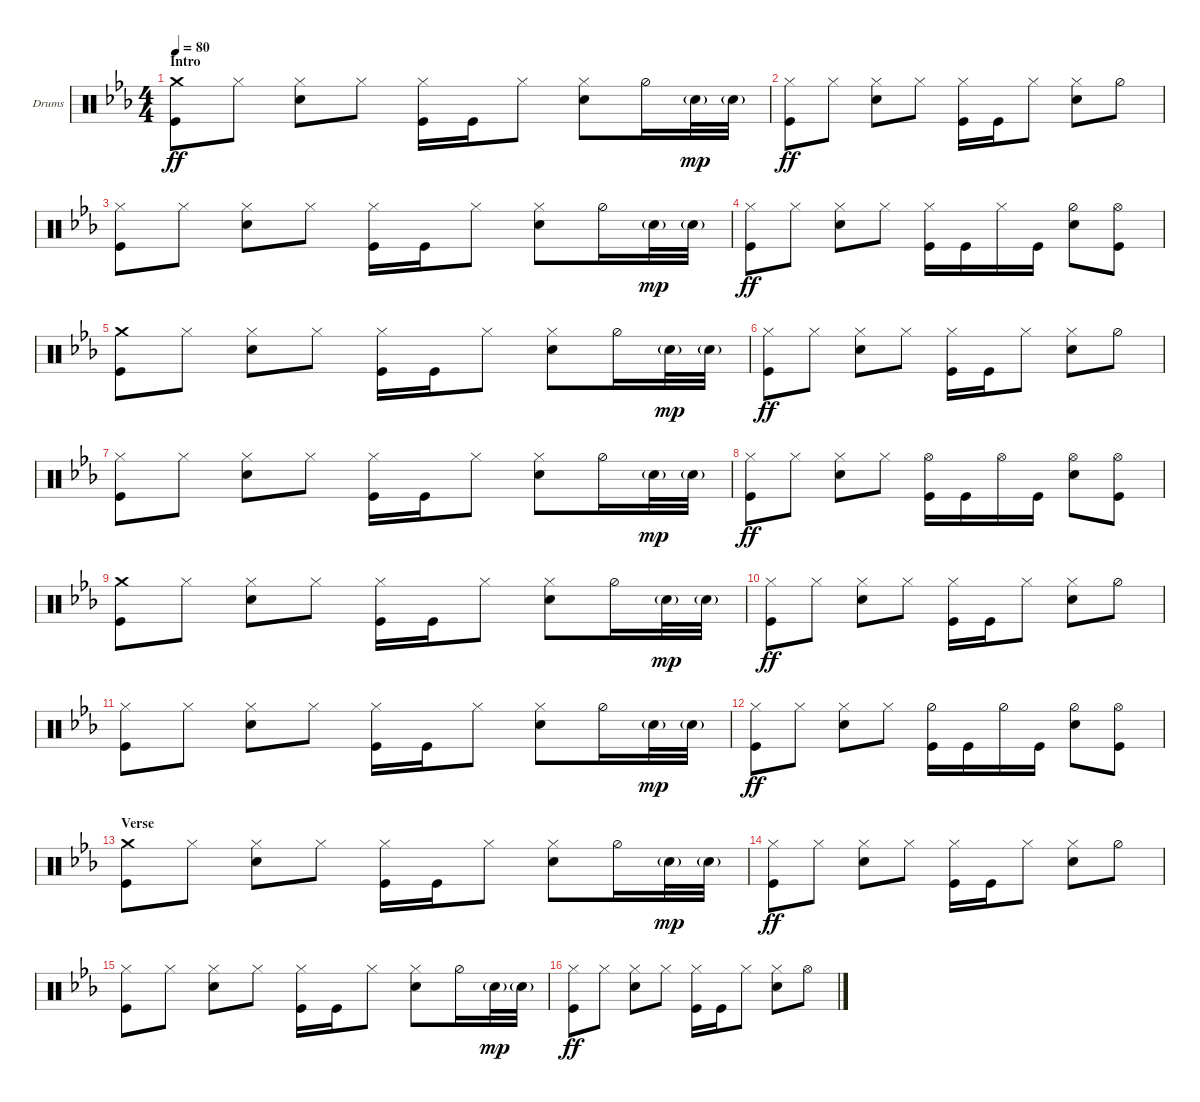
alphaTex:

\defaultSystemsLayout 4
\bracketExtendMode groupsimilarinstruments
\firstSystemTrackNameOrientation horizontal
\otherSystemsTrackNameOrientation horizontal
\track ("Mario Goossens" "Drums") {instrument percussion}
\staff {score}
\articulation defaults
\ts (4 4)
\section ("" "Intro")
\tempo 80
\clef neutral
\ks cminor
("Kick (hit)" "Crash medium (hit)").8{dy ff} "Hi-Hat (closed)".8 ("Hi-Hat (closed)" "Snare (hit) 2").8 "Hi-Hat (closed)".8 ("Kick (hit)" "Hi-Hat (closed)").16 "Kick (hit)".16 "Hi-Hat (closed)".8 ("Hi-Hat (closed)" "Snare (hit) 2").8 "Hi-Hat (half)".16 "Snare (hit) 2"{g}.32{dy mp} "Snare (hit) 2"{g}.32 |
("Kick (hit)" "Hi-Hat (closed)").8{dy ff} "Hi-Hat (closed)".8 ("Hi-Hat (closed)" "Snare (hit) 2").8 "Hi-Hat (closed)".8 ("Kick (hit)" "Hi-Hat (closed)").16 "Kick (hit)".16 "Hi-Hat (closed)".8 ("Hi-Hat (closed)" "Snare (hit) 2").8 "Hi-Hat (half)".8 |
("Kick (hit)" "Hi-Hat (closed)").8 "Hi-Hat (closed)".8 ("Hi-Hat (closed)" "Snare (hit) 2").8 "Hi-Hat (closed)".8 ("Kick (hit)" "Hi-Hat (closed)").16 "Kick (hit)".16 "Hi-Hat (closed)".8 ("Hi-Hat (closed)" "Snare (hit) 2").8 "Hi-Hat (half)".16 "Snare (hit) 2"{g}.32{dy mp} "Snare (hit) 2"{g}.32 |
("Kick (hit)" "Hi-Hat (closed)").8{dy ff} "Hi-Hat (closed)".8 ("Hi-Hat (closed)" "Snare (hit) 2").8 "Hi-Hat (closed)".8 ("Kick (hit)" "Hi-Hat (closed)").16 "Kick (hit)".16 "Hi-Hat (closed)".16 "Kick (hit)".16 ("Hi-Hat (half)" "Snare (hit) 2").8 ("Hi-Hat (open)" "Kick (hit)").8 |
("Kick (hit)" "Crash medium (hit)").8 "Hi-Hat (closed)".8 ("Hi-Hat (closed)" "Snare (hit) 2").8 "Hi-Hat (closed)".8 ("Kick (hit)" "Hi-Hat (closed)").16 "Kick (hit)".16 "Hi-Hat (closed)".8 ("Hi-Hat (closed)" "Snare (hit) 2").8 "Hi-Hat (half)".16 "Snare (hit) 2"{g}.32{dy mp} "Snare (hit) 2"{g}.32 |
("Kick (hit)" "Hi-Hat (closed)").8{dy ff} "Hi-Hat (closed)".8 ("Hi-Hat (closed)" "Snare (hit) 2").8 "Hi-Hat (closed)".8 ("Kick (hit)" "Hi-Hat (closed)").16 "Kick (hit)".16 "Hi-Hat (closed)".8 ("Hi-Hat (closed)" "Snare (hit) 2").8 "Hi-Hat (half)".8 |
("Kick (hit)" "Hi-Hat (closed)").8 "Hi-Hat (closed)".8 ("Hi-Hat (closed)" "Snare (hit) 2").8 "Hi-Hat (closed)".8 ("Kick (hit)" "Hi-Hat (closed)").16 "Kick (hit)".16 "Hi-Hat (closed)".8 ("Hi-Hat (closed)" "Snare (hit) 2").8 "Hi-Hat (half)".16 "Snare (hit) 2"{g}.32{dy mp} "Snare (hit) 2"{g}.32 |
("Kick (hit)" "Hi-Hat (closed)").8{dy ff} "Hi-Hat (closed)".8 ("Hi-Hat (closed)" "Snare (hit) 2").8 "Hi-Hat (closed)".8 ("Kick (hit)" "Hi-Hat (open)").16 "Kick (hit)".16 "Hi-Hat (open)".16 "Kick (hit)".16 ("Hi-Hat (open)" "Snare (hit) 2").8 ("Hi-Hat (open)" "Kick (hit)").8 |
("Kick (hit)" "Crash medium (hit)").8 "Hi-Hat (closed)".8 ("Hi-Hat (closed)" "Snare (hit) 2").8 "Hi-Hat (closed)".8 ("Kick (hit)" "Hi-Hat (closed)").16 "Kick (hit)".16 "Hi-Hat (closed)".8 ("Hi-Hat (closed)" "Snare (hit) 2").8 "Hi-Hat (half)".16 "Snare (hit) 2"{g}.32{dy mp} "Snare (hit) 2"{g}.32 |
("Kick (hit)" "Hi-Hat (closed)").8{dy ff} "Hi-Hat (closed)".8 ("Hi-Hat (closed)" "Snare (hit) 2").8 "Hi-Hat (closed)".8 ("Kick (hit)" "Hi-Hat (closed)").16 "Kick (hit)".16 "Hi-Hat (closed)".8 ("Hi-Hat (closed)" "Snare (hit) 2").8 "Hi-Hat (half)".8 |
("Kick (hit)" "Hi-Hat (closed)").8 "Hi-Hat (closed)".8 ("Hi-Hat (closed)" "Snare (hit) 2").8 "Hi-Hat (closed)".8 ("Kick (hit)" "Hi-Hat (closed)").16 "Kick (hit)".16 "Hi-Hat (closed)".8 ("Hi-Hat (closed)" "Snare (hit) 2").8 "Hi-Hat (half)".16 "Snare (hit) 2"{g}.32{dy mp} "Snare (hit) 2"{g}.32 |
("Kick (hit)" "Hi-Hat (closed)").8{dy ff} "Hi-Hat (closed)".8 ("Hi-Hat (closed)" "Snare (hit) 2").8 "Hi-Hat (closed)".8 ("Kick (hit)" "Hi-Hat (half)").16 "Kick (hit)".16 "Hi-Hat (half)".16 "Kick (hit)".16 ("Hi-Hat (half)" "Snare (hit) 2").8 ("Hi-Hat (open)" "Kick (hit)").8 |
\section ("" "Verse")
("Kick (hit)" "Crash medium (hit)").8 "Hi-Hat (closed)".8 ("Hi-Hat (closed)" "Snare (hit) 2").8 "Hi-Hat (closed)".8 ("Kick (hit)" "Hi-Hat (closed)").16 "Kick (hit)".16 "Hi-Hat (closed)".8 ("Hi-Hat (closed)" "Snare (hit) 2").8 "Hi-Hat (half)".16 "Snare (hit) 2"{g}.32{dy mp} "Snare (hit) 2"{g}.32 |
("Kick (hit)" "Hi-Hat (closed)").8{dy ff} "Hi-Hat (closed)".8 ("Hi-Hat (closed)" "Snare (hit) 2").8 "Hi-Hat (closed)".8 ("Kick (hit)" "Hi-Hat (closed)").16 "Kick (hit)".16 "Hi-Hat (closed)".8 ("Hi-Hat (closed)" "Snare (hit) 2").8 "Hi-Hat (half)".8 |
("Kick (hit)" "Hi-Hat (closed)").8 "Hi-Hat (closed)".8 ("Hi-Hat (closed)" "Snare (hit) 2").8 "Hi-Hat (closed)".8 ("Kick (hit)" "Hi-Hat (closed)").16 "Kick (hit)".16 "Hi-Hat (closed)".8 ("Hi-Hat (closed)" "Snare (hit) 2").8 "Hi-Hat (half)".16 "Snare (hit) 2"{g}.32{dy mp} "Snare (hit) 2"{g}.32 |
("Kick (hit)" "Hi-Hat (closed)").8{dy ff} "Hi-Hat (closed)".8 ("Hi-Hat (closed)" "Snare (hit) 2").8 "Hi-Hat (closed)".8 ("Kick (hit)" "Hi-Hat (closed)").16 "Kick (hit)".16 "Hi-Hat (closed)".8 ("Hi-Hat (closed)" "Snare (hit) 2").8 "Hi-Hat (open)".8
